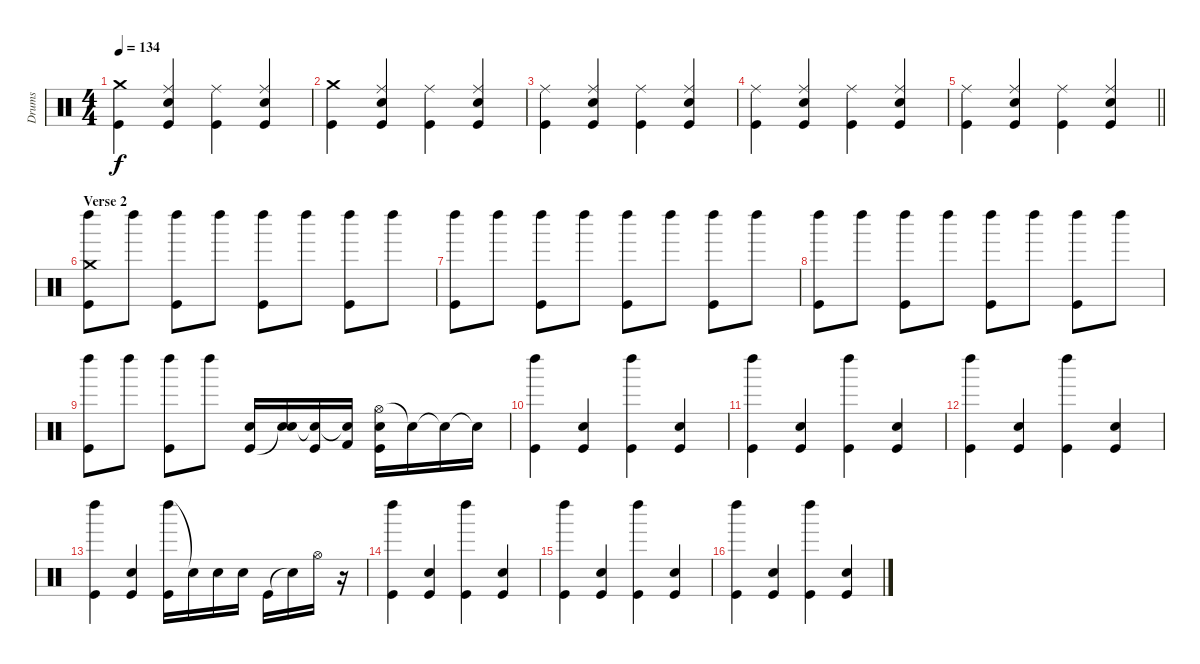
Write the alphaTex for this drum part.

\track ("Drums" "Drums") {instrument percussion}
\staff {score}
\articulation defaults
\ts (4 4)
\tempo 134
\clef neutral
\ks c
("Crash medium (hit)" "Kick (hit)").4{dy f} ("Ride (middle)" "Kick (hit)" "Snare (hit) 2").4 ("Ride (middle)" "Kick (hit)").4 ("Ride (middle)" "Kick (hit)" "Snare (hit) 2").4 |
("Crash medium (hit)" "Kick (hit)").4 ("Ride (middle)" "Kick (hit)" "Snare (hit) 2").4 ("Ride (middle)" "Kick (hit)").4 ("Ride (middle)" "Kick (hit)" "Snare (hit) 2").4 |
("Ride (middle)" "Kick (hit)").4 ("Ride (middle)" "Kick (hit)" "Snare (hit) 2").4 ("Ride (middle)" "Kick (hit)").4 ("Ride (middle)" "Kick (hit)" "Snare (hit) 2").4 |
("Ride (middle)" "Kick (hit)").4 ("Ride (middle)" "Kick (hit)" "Snare (hit) 2").4 ("Ride (middle)" "Kick (hit)").4 ("Ride (middle)" "Kick (hit)" "Snare (hit) 2").4 |
\barLineRight lightlight
("Ride (middle)" "Kick (hit)").4 ("Ride (middle)" "Kick (hit)" "Snare (hit) 2").4 ("Ride (middle)" "Kick (hit)").4 ("Ride (middle)" "Kick (hit)" "Snare (hit) 2").4 |
\section ("" "Verse 2")
("Left Maraca (hit)" "Kick (hit)" "Crash medium (hit)").8 "Left Maraca (hit)".8 ("Left Maraca (hit)" "Kick (hit)").8 "Left Maraca (hit)".8 ("Left Maraca (hit)" "Kick (hit)").8 "Left Maraca (hit)".8 ("Left Maraca (hit)" "Kick (hit)").8 "Left Maraca (hit)".8 |
("Left Maraca (hit)" "Kick (hit)").8 "Left Maraca (hit)".8 ("Left Maraca (hit)" "Kick (hit)").8 "Left Maraca (hit)".8 ("Left Maraca (hit)" "Kick (hit)").8 "Left Maraca (hit)".8 ("Left Maraca (hit)" "Kick (hit)").8 "Left Maraca (hit)".8 |
("Left Maraca (hit)" "Kick (hit)").8 "Left Maraca (hit)".8 ("Left Maraca (hit)" "Kick (hit)").8 "Left Maraca (hit)".8 ("Left Maraca (hit)" "Kick (hit)").8 "Left Maraca (hit)".8 ("Left Maraca (hit)" "Kick (hit)").8 "Left Maraca (hit)".8 |
("Left Maraca (hit)" "Kick (hit)").8 "Left Maraca (hit)".8 ("Left Maraca (hit)" "Kick (hit)").8 "Left Maraca (hit)".8 ("Kick (hit)" "Snare (hit) 2").16 ("Snare (hit)"{t} "Snare (hit) 2").16 ("Snare (hit)"{t} "Kick (hit)").16 ("Snare (hit)"{t} "Kick (hit) 2").16 ("Hi-Hat (open)" "Kick (hit)" "Snare (hit) 2").16 "Snare (hit)"{t}.16 "Snare (hit)"{t}.16 "Snare (hit)"{t}.16 |
("Left Maraca (hit)" "Kick (hit)").4 ("Kick (hit)" "Snare (hit) 2").4 ("Left Maraca (hit)" "Kick (hit)").4 ("Kick (hit)" "Snare (hit) 2").4 |
("Left Maraca (hit)" "Kick (hit)").4 ("Kick (hit)" "Snare (hit) 2").4 ("Left Maraca (hit)" "Kick (hit)").4 ("Kick (hit)" "Snare (hit) 2").4 |
("Left Maraca (hit)" "Kick (hit)").4 ("Kick (hit)" "Snare (hit) 2").4 ("Left Maraca (hit)" "Kick (hit)").4 ("Kick (hit)" "Snare (hit) 2").4 |
("Left Maraca (hit)" "Kick (hit)").4 ("Kick (hit)" "Snare (hit) 2").4 ("Left Maraca (hit)" "Kick (hit)").16 "Snare (hit) 2"{t}.16 "Snare (hit) 2".16 "Snare (hit) 2".16 "Kick (hit)".16 "Snare (hit)"{t}.16 "Hi-Hat (open)".16 r.16 |
("Left Maraca (hit)" "Kick (hit)").4 ("Kick (hit)" "Snare (hit) 2").4 ("Left Maraca (hit)" "Kick (hit)").4 ("Kick (hit)" "Snare (hit) 2").4 |
("Left Maraca (hit)" "Kick (hit)").4 ("Kick (hit)" "Snare (hit) 2").4 ("Left Maraca (hit)" "Kick (hit)").4 ("Kick (hit)" "Snare (hit) 2").4 |
("Left Maraca (hit)" "Kick (hit)").4 ("Kick (hit)" "Snare (hit) 2").4 ("Left Maraca (hit)" "Kick (hit)").4 ("Kick (hit)" "Snare (hit) 2").4
